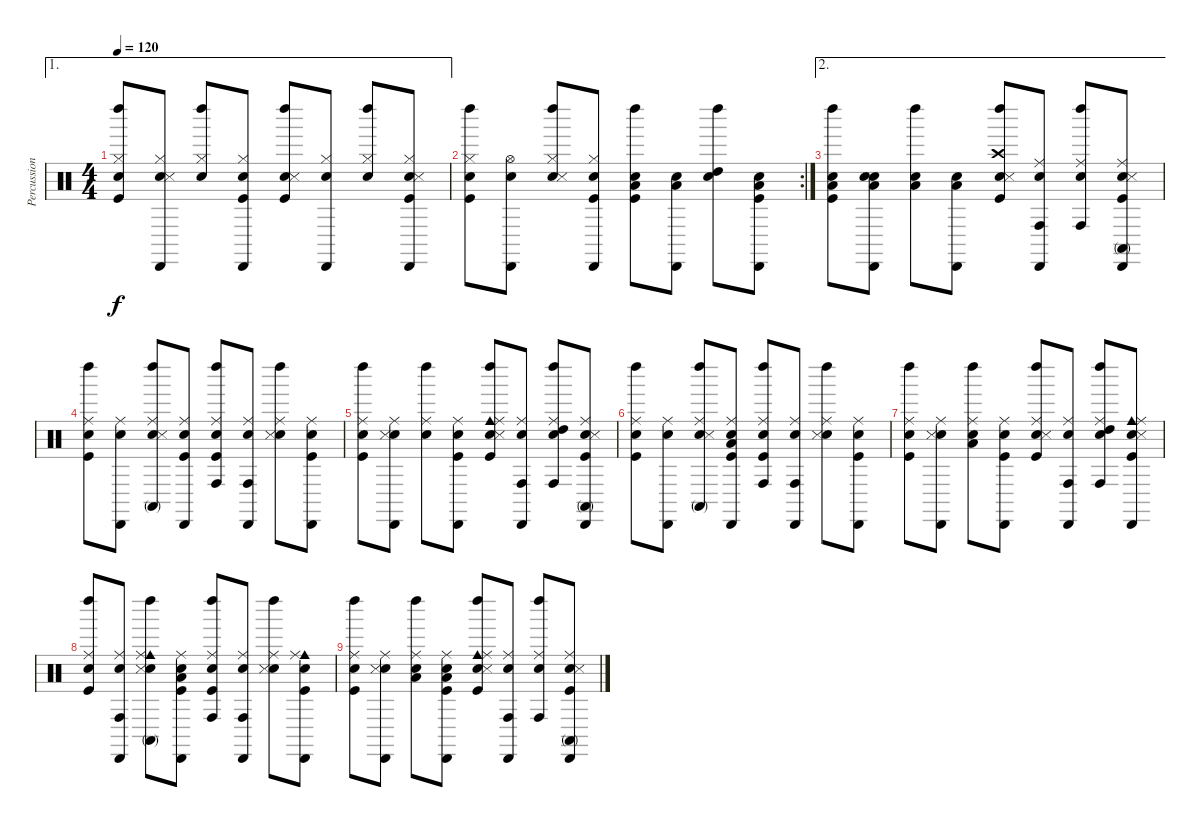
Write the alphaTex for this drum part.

\track ("Percussions" "Percussion") {instrument percussion}
\staff {score}
\articulation defaults
\ae 1
\ts (4 4)
\tempo 120
\clef neutral
\ks c
("Snare (hit)" "Kick (hit)" "Hi-Hat (closed)" "Left Maraca (hit)").8{dy f} ("Snare (hit)" "Hi-Hat (closed)" "Snare (side stick) 3" "Cabasa (hit)").8 ("Snare (hit)" "Hi-Hat (closed)" "Left Maraca (hit)").8 ("Snare (hit)" "Kick (hit)" "Hi-Hat (closed)" "Cabasa (hit)").8 ("Snare (hit)" "Kick (hit)" "Snare (side stick) 3" "Left Maraca (hit)").8 ("Snare (hit)" "Hi-Hat (closed)" "Cabasa (hit)").8 ("Snare (hit)" "Hi-Hat (closed)" "Left Maraca (hit)").8 ("Snare (hit)" "Kick (hit)" "Hi-Hat (closed)" "Snare (side stick) 3" "Cabasa (hit)").8 |
\rc 2
("Snare (hit)" "Kick (hit)" "Hi-Hat (closed)" "Left Maraca (hit)").8 ("Snare (hit)" "Hi-Hat (open)" "Cabasa (hit)").8 ("Snare (hit)" "Hi-Hat (closed)" "Snare (side stick) 3" "Left Maraca (hit)").8 ("Snare (hit)" "Kick (hit)" "Hi-Hat (closed)" "Cabasa (hit)").8 ("Snare (hit)" "Kick (hit)" "Low Tom (hit)" "Left Maraca (hit)").8 ("Snare (hit)" "Low Tom (hit)" "Cabasa (hit)").8 ("Snare (hit)" "High Tom (hit)" "Left Maraca (hit)").8 ("Snare (hit)" "Kick (hit)" "Low Tom (hit)" "Cabasa (hit)").8 |
\ae 2
("Snare (hit)" "Kick (hit)" "Low Tom (hit)" "Left Maraca (hit)").8 ("Snare (hit)" "Snare (hit) 2" "Low Tom (hit)" "Cabasa (hit)").8 ("Snare (hit)" "Low Floor Tom (hit)" "Left Maraca (hit)").8 ("Snare (hit)" "Low Floor Tom (hit)" "Cabasa (hit)").8 ("Snare (hit)" "Kick (hit)" "Snare (side stick) 3" "Crash high (hit)" "Left Maraca (hit)").8 ("Snare (hit)" "Ride (middle)" "Conga high (hit)" "Cabasa (hit)").8 ("Snare (hit)" "Ride (middle)" "Conga high (hit)" "Left Maraca (hit)").8 ("Snare (hit)" "Kick (hit)" "Snare (side stick) 3" "Ride (middle)" "Conga high (mute)" "Cabasa (hit)").8 |
("Snare (hit)" "Kick (hit)" "Ride (middle)" "Left Maraca (hit)").8 ("Snare (hit)" "Ride (middle)" "Cabasa (hit)").8 ("Snare (hit)" "Snare (side stick) 3" "Ride (middle)" "Conga high (mute)" "Left Maraca (hit)").8 ("Snare (hit)" "Kick (hit)" "Ride (middle)" "Cabasa (hit)").8 ("Snare (hit)" "Kick (hit)" "Ride (middle)" "Conga high (hit)" "Left Maraca (hit)").8 ("Snare (hit)" "Ride (middle)" "Conga high (hit)" "Cabasa (hit)").8 ("Snare (hit)" "Snare (side stick) 3" "Ride (middle)" "Left Maraca (hit)").8 ("Snare (hit)" "Kick (hit)" "Ride (middle)" "Cabasa (hit)").8 |
("Snare (hit)" "Kick (hit)" "Ride (middle)" "Left Maraca (hit)").8 ("Snare (hit)" "Snare (side stick) 3" "Ride (middle)" "Cabasa (hit)").8 ("Snare (hit)" "Ride (middle)" "Left Maraca (hit)").8 ("Snare (hit)" "Kick (hit)" "Ride (middle)" "Cabasa (hit)").8 ("Snare (hit)" "Kick (hit)" "Snare (side stick) 3" "Cowbell medium (hit)" "Ride (middle)" "Left Maraca (hit)").8 ("Snare (hit)" "Ride (middle)" "Conga high (hit)" "Cabasa (hit)").8 ("Snare (hit)" "Ride (middle)" "High Tom (hit)" "Conga high (hit)" "Left Maraca (hit)").8 ("Snare (hit)" "Kick (hit)" "Snare (side stick) 3" "Ride (middle)" "Conga high (mute)" "Cabasa (hit)").8 |
("Snare (hit)" "Kick (hit)" "Ride (middle)" "Left Maraca (hit)").8 ("Snare (hit)" "Ride (middle)" "Cabasa (hit)").8 ("Snare (hit)" "Snare (side stick) 3" "Ride (middle)" "Conga high (mute)" "Left Maraca (hit)").8 ("Snare (hit)" "Kick (hit)" "Ride (middle)" "Low Tom (hit)" "Cabasa (hit)").8 ("Snare (hit)" "Kick (hit)" "Ride (middle)" "Conga high (hit)" "Left Maraca (hit)").8 ("Snare (hit)" "Ride (middle)" "Conga high (hit)" "Cabasa (hit)").8 ("Snare (hit)" "Snare (side stick) 3" "Ride (middle)" "Left Maraca (hit)").8 ("Snare (hit)" "Kick (hit)" "Ride (middle)" "Cabasa (hit)").8 |
("Snare (hit)" "Kick (hit)" "Ride (middle)" "Left Maraca (hit)").8 ("Snare (hit)" "Snare (side stick) 3" "Ride (middle)" "Cabasa (hit)").8 ("Snare (hit)" "Ride (middle)" "Low Tom (hit)" "Left Maraca (hit)").8 ("Snare (hit)" "Kick (hit)" "Ride (middle)" "Cabasa (hit)").8 ("Snare (hit)" "Kick (hit)" "Snare (side stick) 3" "Ride (middle)" "Left Maraca (hit)").8 ("Snare (hit)" "Ride (middle)" "Conga high (hit)" "Cabasa (hit)").8 ("Snare (hit)" "Ride (middle)" "High Tom (hit)" "Conga high (hit)" "Left Maraca (hit)").8 ("Snare (hit)" "Kick (hit)" "Snare (side stick) 3" "Cowbell medium (hit)" "Ride (middle)" "Cabasa (hit)").8 |
("Snare (hit)" "Kick (hit)" "Ride (middle)" "Left Maraca (hit)").8 ("Snare (hit)" "Ride (middle)" "Conga high (hit)" "Cabasa (hit)").8 ("Snare (hit)" "Snare (side stick) 3" "Cowbell medium (hit)" "Ride (middle)" "Conga high (mute)" "Left Maraca (hit)").8 ("Snare (hit)" "Kick (hit)" "Ride (middle)" "Low Tom (hit)" "Cabasa (hit)").8 ("Snare (hit)" "Kick (hit)" "Ride (middle)" "Conga high (hit)" "Left Maraca (hit)").8 ("Snare (hit)" "Ride (middle)" "Conga high (hit)" "Cabasa (hit)").8 ("Snare (hit)" "Snare (side stick) 3" "Ride (middle)" "Left Maraca (hit)").8 ("Snare (hit)" "Kick (hit)" "Cowbell medium (hit)" "Ride (middle)" "Cabasa (hit)").8 |
("Snare (hit)" "Kick (hit)" "Ride (middle)" "Left Maraca (hit)").8 ("Snare (hit)" "Snare (side stick) 3" "Ride (middle)" "Cabasa (hit)").8 ("Snare (hit)" "Ride (middle)" "Low Tom (hit)" "Left Maraca (hit)").8 ("Snare (hit)" "Kick (hit)" "Ride (middle)" "Low Floor Tom (hit)" "Cabasa (hit)").8 ("Snare (hit)" "Kick (hit)" "Snare (side stick) 3" "Cowbell medium (hit)" "Ride (middle)" "Left Maraca (hit)").8 ("Snare (hit)" "Ride (middle)" "Conga high (hit)" "Cabasa (hit)").8 ("Snare (hit)" "Ride (middle)" "Conga high (hit)" "Left Maraca (hit)").8 ("Snare (hit)" "Kick (hit)" "Snare (side stick) 3" "Ride (middle)" "Conga high (mute)" "Cabasa (hit)").8
